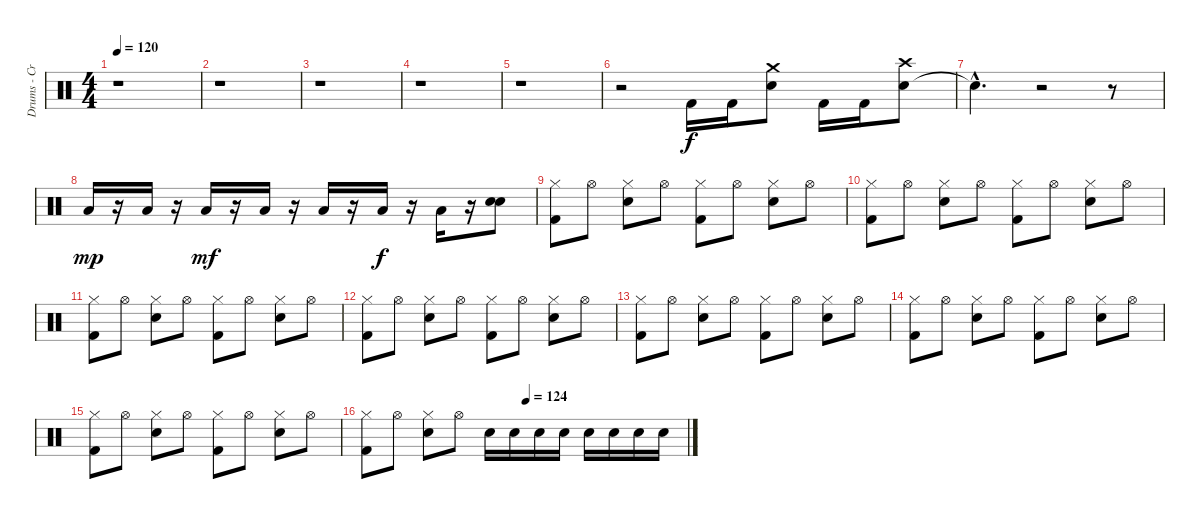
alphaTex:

\track ("Drums - Cris Knapp" "Drums - Cr") {instrument percussion}
\staff {score}
\articulation defaults
\ts (4 4)
\tempo 120
\clef neutral
\ks c
r.1{dy f} |
r.1 |
r.1 |
r.1 |
r.1 |
r.2 "Kick (hit) 2".16 "Kick (hit) 2".16 ("Electric Snare (hit)" "Crash medium (hit)").8 "Kick (hit) 2".16 "Kick (hit) 2".16 ("Electric Snare (hit)" "Crash high (hit)").8 |
"Snare (hit)"{hac t}.4{d} r.2 r.8 |
"Low Tom (hit)".16{dy mp} r.16 "Low Tom (hit)".16 r.16 "Low Tom (hit)".16{dy mf} r.16 "Low Tom (hit)".16 r.16 "Low Tom (hit)".16 r.16 "Low Tom (hit)".16{dy f} r.16 "Low Tom (hit)".16 r.16 ("Electric Snare (hit)" "Electric Snare (hit)").8 |
("Kick (hit) 2" "Hi-Hat (closed)").8 "Hi-Hat (open)".8 ("Electric Snare (hit)" "Hi-Hat (closed)").8 "Hi-Hat (open)".8 ("Kick (hit) 2" "Hi-Hat (closed)").8 "Hi-Hat (open)".8 ("Electric Snare (hit)" "Hi-Hat (closed)").8 "Hi-Hat (open)".8 |
("Kick (hit) 2" "Hi-Hat (closed)").8 "Hi-Hat (open)".8 ("Electric Snare (hit)" "Hi-Hat (closed)").8 "Hi-Hat (open)".8 ("Kick (hit) 2" "Hi-Hat (closed)").8 "Hi-Hat (open)".8 ("Electric Snare (hit)" "Hi-Hat (closed)").8 "Hi-Hat (open)".8 |
("Kick (hit) 2" "Hi-Hat (closed)").8 "Hi-Hat (open)".8 ("Electric Snare (hit)" "Hi-Hat (closed)").8 "Hi-Hat (open)".8 ("Kick (hit) 2" "Hi-Hat (closed)").8 "Hi-Hat (open)".8 ("Electric Snare (hit)" "Hi-Hat (closed)").8 "Hi-Hat (open)".8 |
("Kick (hit) 2" "Hi-Hat (closed)").8 "Hi-Hat (open)".8 ("Electric Snare (hit)" "Hi-Hat (closed)").8 "Hi-Hat (open)".8 ("Kick (hit) 2" "Hi-Hat (closed)").8 "Hi-Hat (open)".8 ("Electric Snare (hit)" "Hi-Hat (closed)").8 "Hi-Hat (open)".8 |
("Kick (hit) 2" "Hi-Hat (closed)").8 "Hi-Hat (open)".8 ("Electric Snare (hit)" "Hi-Hat (closed)").8 "Hi-Hat (open)".8 ("Kick (hit) 2" "Hi-Hat (closed)").8 "Hi-Hat (open)".8 ("Electric Snare (hit)" "Hi-Hat (closed)").8 "Hi-Hat (open)".8 |
("Kick (hit) 2" "Hi-Hat (closed)").8 "Hi-Hat (open)".8 ("Electric Snare (hit)" "Hi-Hat (closed)").8 "Hi-Hat (open)".8 ("Kick (hit) 2" "Hi-Hat (closed)").8 "Hi-Hat (open)".8 ("Electric Snare (hit)" "Hi-Hat (closed)").8 "Hi-Hat (open)".8 |
("Kick (hit) 2" "Hi-Hat (closed)").8 "Hi-Hat (open)".8 ("Electric Snare (hit)" "Hi-Hat (closed)").8 "Hi-Hat (open)".8 ("Kick (hit) 2" "Hi-Hat (closed)").8 "Hi-Hat (open)".8 ("Electric Snare (hit)" "Hi-Hat (closed)").8 "Hi-Hat (open)".8 |
\tempo (124 0.5)
("Kick (hit) 2" "Hi-Hat (closed)").8 "Hi-Hat (open)".8 ("Electric Snare (hit)" "Hi-Hat (closed)").8 "Hi-Hat (open)".8 "Electric Snare (hit)".16 "Electric Snare (hit)".16 "Electric Snare (hit)".16 "Electric Snare (hit)".16 "Electric Snare (hit)".16 "Electric Snare (hit)".16 "Electric Snare (hit)".16 "Electric Snare (hit)".16
